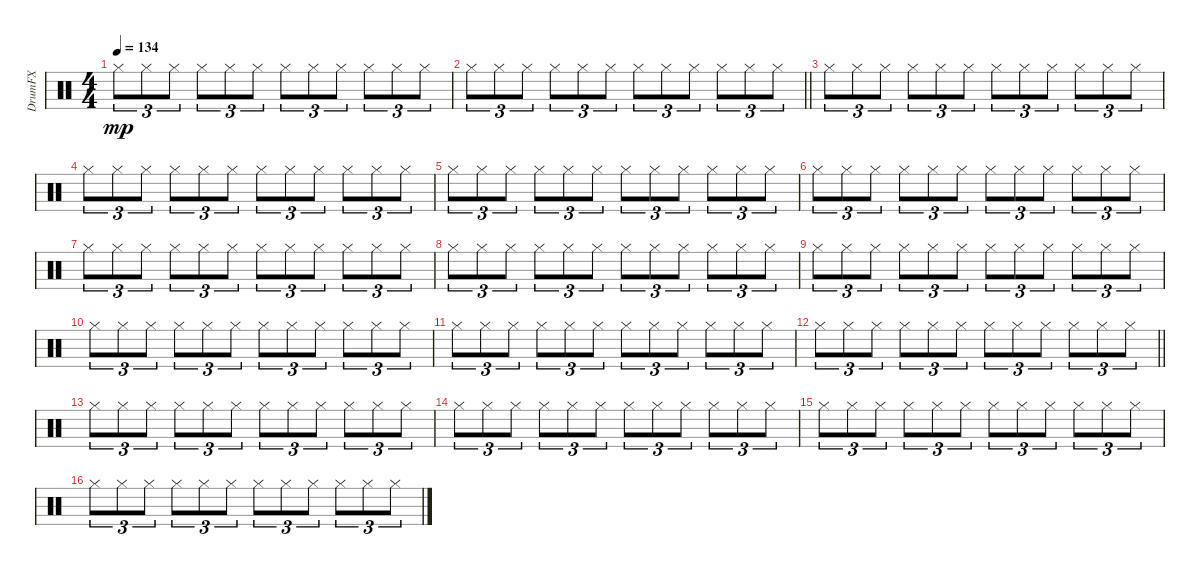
\track ("DrumFX" "DrumFX") {instrument percussion}
\staff {score}
\articulation defaults
\ts (4 4)
\tempo 134
\clef neutral
\ks c "Hi-Hat (closed)".8{tu (3 2) dy mp} "Hi-Hat (closed)".8{tu (3 2)} "Hi-Hat (closed)".8{tu (3 2)} "Hi-Hat (closed)".8{tu (3 2)} "Hi-Hat (closed)".8{tu (3 2)} "Hi-Hat (closed)".8{tu (3 2)} "Hi-Hat (closed)".8{tu (3 2)} "Hi-Hat (closed)".8{tu (3 2)} "Hi-Hat (closed)".8{tu (3 2)} "Hi-Hat (closed)".8{tu (3 2)} "Hi-Hat (closed)".8{tu (3 2)} "Hi-Hat (closed)".8{tu (3 2)}
|
\barLineRight lightlight "Hi-Hat (closed)".8{tu (3 2)} "Hi-Hat (closed)".8{tu (3 2)} "Hi-Hat (closed)".8{tu (3 2)} "Hi-Hat (closed)".8{tu (3 2)} "Hi-Hat (closed)".8{tu (3 2)} "Hi-Hat (closed)".8{tu (3 2)} "Hi-Hat (closed)".8{tu (3 2)} "Hi-Hat (closed)".8{tu (3 2)} "Hi-Hat (closed)".8{tu (3 2)} "Hi-Hat (closed)".8{tu (3 2)} "Hi-Hat (closed)".8{tu (3 2)} "Hi-Hat (closed)".8{tu (3 2)}
|
\section ("" "")
"Hi-Hat (closed)".8{tu (3 2)} "Hi-Hat (closed)".8{tu (3 2)} "Hi-Hat (closed)".8{tu (3 2)} "Hi-Hat (closed)".8{tu (3 2)} "Hi-Hat (closed)".8{tu (3 2)} "Hi-Hat (closed)".8{tu (3 2)} "Hi-Hat (closed)".8{tu (3 2)} "Hi-Hat (closed)".8{tu (3 2)} "Hi-Hat (closed)".8{tu (3 2)} "Hi-Hat (closed)".8{tu (3 2)} "Hi-Hat (closed)".8{tu (3 2)} "Hi-Hat (closed)".8{tu (3 2)} |
"Hi-Hat (closed)".8{tu (3 2)} "Hi-Hat (closed)".8{tu (3 2)} "Hi-Hat (closed)".8{tu (3 2)} "Hi-Hat (closed)".8{tu (3 2)} "Hi-Hat (closed)".8{tu (3 2)} "Hi-Hat (closed)".8{tu (3 2)} "Hi-Hat (closed)".8{tu (3 2)} "Hi-Hat (closed)".8{tu (3 2)} "Hi-Hat (closed)".8{tu (3 2)} "Hi-Hat (closed)".8{tu (3 2)} "Hi-Hat (closed)".8{tu (3 2)} "Hi-Hat (closed)".8{tu (3 2)} |
"Hi-Hat (closed)".8{tu (3 2)} "Hi-Hat (closed)".8{tu (3 2)} "Hi-Hat (closed)".8{tu (3 2)} "Hi-Hat (closed)".8{tu (3 2)} "Hi-Hat (closed)".8{tu (3 2)} "Hi-Hat (closed)".8{tu (3 2)} "Hi-Hat (closed)".8{tu (3 2)} "Hi-Hat (closed)".8{tu (3 2)} "Hi-Hat (closed)".8{tu (3 2)} "Hi-Hat (closed)".8{tu (3 2)} "Hi-Hat (closed)".8{tu (3 2)} "Hi-Hat (closed)".8{tu (3 2)} |
"Hi-Hat (closed)".8{tu (3 2)} "Hi-Hat (closed)".8{tu (3 2)} "Hi-Hat (closed)".8{tu (3 2)} "Hi-Hat (closed)".8{tu (3 2)} "Hi-Hat (closed)".8{tu (3 2)} "Hi-Hat (closed)".8{tu (3 2)} "Hi-Hat (closed)".8{tu (3 2)} "Hi-Hat (closed)".8{tu (3 2)} "Hi-Hat (closed)".8{tu (3 2)} "Hi-Hat (closed)".8{tu (3 2)} "Hi-Hat (closed)".8{tu (3 2)} "Hi-Hat (closed)".8{tu (3 2)} |
"Hi-Hat (closed)".8{tu (3 2)} "Hi-Hat (closed)".8{tu (3 2)} "Hi-Hat (closed)".8{tu (3 2)} "Hi-Hat (closed)".8{tu (3 2)} "Hi-Hat (closed)".8{tu (3 2)} "Hi-Hat (closed)".8{tu (3 2)} "Hi-Hat (closed)".8{tu (3 2)} "Hi-Hat (closed)".8{tu (3 2)} "Hi-Hat (closed)".8{tu (3 2)} "Hi-Hat (closed)".8{tu (3 2)} "Hi-Hat (closed)".8{tu (3 2)} "Hi-Hat (closed)".8{tu (3 2)} |
"Hi-Hat (closed)".8{tu (3 2)} "Hi-Hat (closed)".8{tu (3 2)} "Hi-Hat (closed)".8{tu (3 2)} "Hi-Hat (closed)".8{tu (3 2)} "Hi-Hat (closed)".8{tu (3 2)} "Hi-Hat (closed)".8{tu (3 2)} "Hi-Hat (closed)".8{tu (3 2)} "Hi-Hat (closed)".8{tu (3 2)} "Hi-Hat (closed)".8{tu (3 2)} "Hi-Hat (closed)".8{tu (3 2)} "Hi-Hat (closed)".8{tu (3 2)} "Hi-Hat (closed)".8{tu (3 2)} |
"Hi-Hat (closed)".8{tu (3 2)} "Hi-Hat (closed)".8{tu (3 2)} "Hi-Hat (closed)".8{tu (3 2)} "Hi-Hat (closed)".8{tu (3 2)} "Hi-Hat (closed)".8{tu (3 2)} "Hi-Hat (closed)".8{tu (3 2)} "Hi-Hat (closed)".8{tu (3 2)} "Hi-Hat (closed)".8{tu (3 2)} "Hi-Hat (closed)".8{tu (3 2)} "Hi-Hat (closed)".8{tu (3 2)} "Hi-Hat (closed)".8{tu (3 2)} "Hi-Hat (closed)".8{tu (3 2)} |
"Hi-Hat (closed)".8{tu (3 2)} "Hi-Hat (closed)".8{tu (3 2)} "Hi-Hat (closed)".8{tu (3 2)} "Hi-Hat (closed)".8{tu (3 2)} "Hi-Hat (closed)".8{tu (3 2)} "Hi-Hat (closed)".8{tu (3 2)} "Hi-Hat (closed)".8{tu (3 2)} "Hi-Hat (closed)".8{tu (3 2)} "Hi-Hat (closed)".8{tu (3 2)} "Hi-Hat (closed)".8{tu (3 2)} "Hi-Hat (closed)".8{tu (3 2)} "Hi-Hat (closed)".8{tu (3 2)} |
"Hi-Hat (closed)".8{tu (3 2)} "Hi-Hat (closed)".8{tu (3 2)} "Hi-Hat (closed)".8{tu (3 2)} "Hi-Hat (closed)".8{tu (3 2)} "Hi-Hat (closed)".8{tu (3 2)} "Hi-Hat (closed)".8{tu (3 2)} "Hi-Hat (closed)".8{tu (3 2)} "Hi-Hat (closed)".8{tu (3 2)} "Hi-Hat (closed)".8{tu (3 2)} "Hi-Hat (closed)".8{tu (3 2)} "Hi-Hat (closed)".8{tu (3 2)} "Hi-Hat (closed)".8{tu (3 2)} |
\barLineRight lightlight "Hi-Hat (closed)".8{tu (3 2)} "Hi-Hat (closed)".8{tu (3 2)} "Hi-Hat (closed)".8{tu (3 2)} "Hi-Hat (closed)".8{tu (3 2)} "Hi-Hat (closed)".8{tu (3 2)} "Hi-Hat (closed)".8{tu (3 2)} "Hi-Hat (closed)".8{tu (3 2)} "Hi-Hat (closed)".8{tu (3 2)} "Hi-Hat (closed)".8{tu (3 2)} "Hi-Hat (closed)".8{tu (3 2)} "Hi-Hat (closed)".8{tu (3 2)} "Hi-Hat (closed)".8{tu (3 2)}
|
\section ("" "")
"Hi-Hat (closed)".8{tu (3 2)} "Hi-Hat (closed)".8{tu (3 2)} "Hi-Hat (closed)".8{tu (3 2)} "Hi-Hat (closed)".8{tu (3 2)} "Hi-Hat (closed)".8{tu (3 2)} "Hi-Hat (closed)".8{tu (3 2)} "Hi-Hat (closed)".8{tu (3 2)} "Hi-Hat (closed)".8{tu (3 2)} "Hi-Hat (closed)".8{tu (3 2)} "Hi-Hat (closed)".8{tu (3 2)} "Hi-Hat (closed)".8{tu (3 2)} "Hi-Hat (closed)".8{tu (3 2)} |
"Hi-Hat (closed)".8{tu (3 2)} "Hi-Hat (closed)".8{tu (3 2)} "Hi-Hat (closed)".8{tu (3 2)} "Hi-Hat (closed)".8{tu (3 2)} "Hi-Hat (closed)".8{tu (3 2)} "Hi-Hat (closed)".8{tu (3 2)} "Hi-Hat (closed)".8{tu (3 2)} "Hi-Hat (closed)".8{tu (3 2)} "Hi-Hat (closed)".8{tu (3 2)} "Hi-Hat (closed)".8{tu (3 2)} "Hi-Hat (closed)".8{tu (3 2)} "Hi-Hat (closed)".8{tu (3 2)} |
"Hi-Hat (closed)".8{tu (3 2)} "Hi-Hat (closed)".8{tu (3 2)} "Hi-Hat (closed)".8{tu (3 2)} "Hi-Hat (closed)".8{tu (3 2)} "Hi-Hat (closed)".8{tu (3 2)} "Hi-Hat (closed)".8{tu (3 2)} "Hi-Hat (closed)".8{tu (3 2)} "Hi-Hat (closed)".8{tu (3 2)} "Hi-Hat (closed)".8{tu (3 2)} "Hi-Hat (closed)".8{tu (3 2)} "Hi-Hat (closed)".8{tu (3 2)} "Hi-Hat (closed)".8{tu (3 2)} |
"Hi-Hat (closed)".8{tu (3 2)} "Hi-Hat (closed)".8{tu (3 2)} "Hi-Hat (closed)".8{tu (3 2)} "Hi-Hat (closed)".8{tu (3 2)} "Hi-Hat (closed)".8{tu (3 2)} "Hi-Hat (closed)".8{tu (3 2)} "Hi-Hat (closed)".8{tu (3 2)} "Hi-Hat (closed)".8{tu (3 2)} "Hi-Hat (closed)".8{tu (3 2)} "Hi-Hat (closed)".8{tu (3 2)} "Hi-Hat (closed)".8{tu (3 2)} "Hi-Hat (closed)".8{tu (3 2)}
